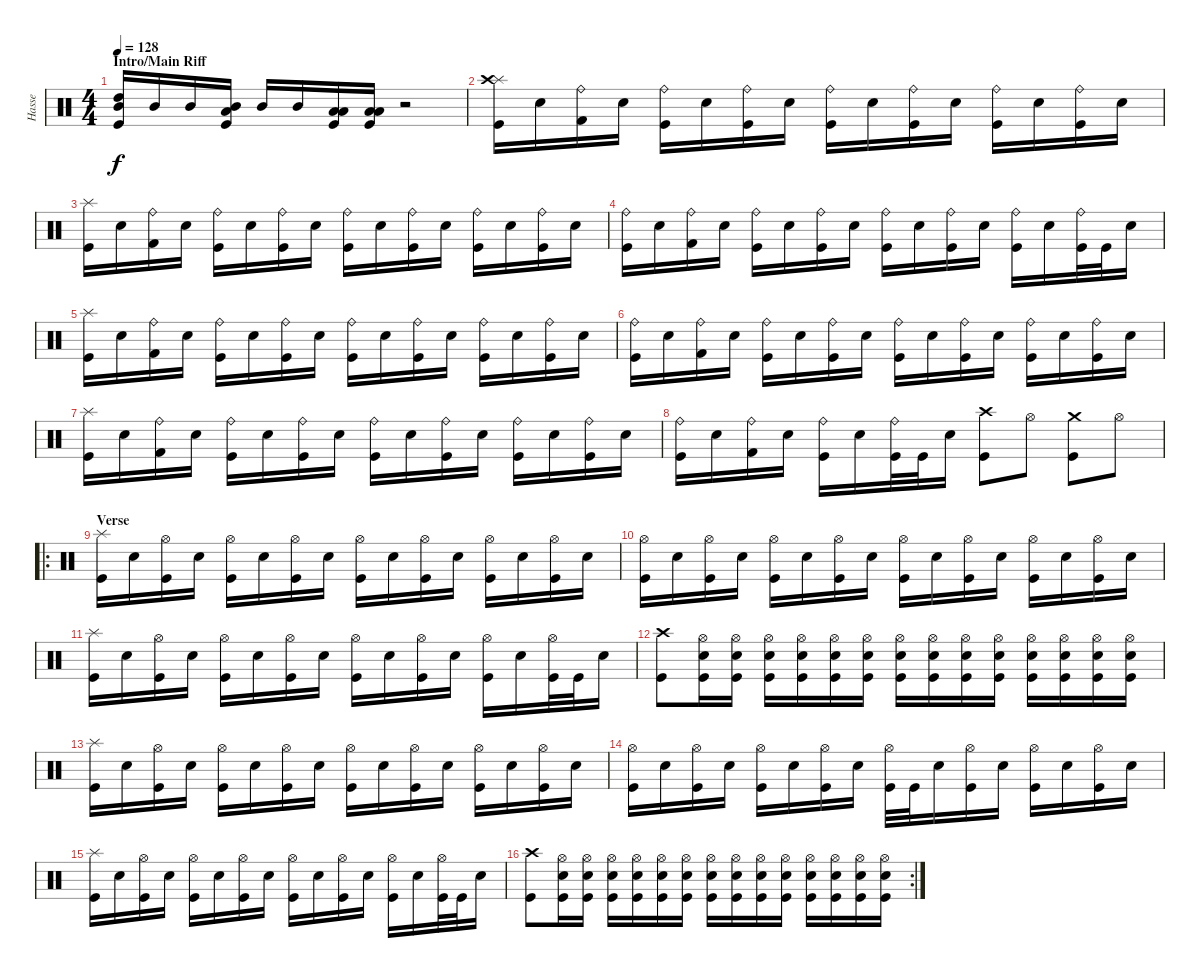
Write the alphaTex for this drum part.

\track ("Hasse" "Hasse") {instrument percussion}
\staff {score}
\articulation defaults
\ts (4 4)
\section ("" "Intro/Main Riff")
\tempo 128
\clef neutral
\ks c
("Mid Tom (hit)" "High Tom (hit)" "Kick (hit)").16{dy f} "Mid Tom (hit)".16 "Mid Tom (hit)".16 ("Mid Tom (hit)" "Low Tom (hit)" "Kick (hit)").16 "Mid Tom (hit)".16 "Mid Tom (hit)".16 ("Low Floor Tom (hit)" "Low Tom (hit)" "Kick (hit)").16 ("Low Floor Tom (hit)" "Low Tom (hit)" "Kick (hit)").16 r.2 |
("Splash (hit)" "Crash high (hit)" "Kick (hit)").16 "Snare (hit) 2".16 ("Ride (bell)" "Kick (hit) 2").16 "Snare (hit) 2".16 ("Ride (bell)" "Kick (hit)").16 "Snare (hit) 2".16 ("Ride (bell)" "Kick (hit)").16 "Snare (hit) 2".16 ("Ride (bell)" "Kick (hit)").16 "Snare (hit) 2".16 ("Ride (bell)" "Kick (hit)").16 "Snare (hit) 2".16 ("Ride (bell)" "Kick (hit)").16 "Snare (hit) 2".16 ("Ride (bell)" "Kick (hit)").16 "Snare (hit) 2".16 |
("Splash (hit)" "Kick (hit)").16 "Snare (hit) 2".16 ("Ride (bell)" "Kick (hit) 2").16 "Snare (hit) 2".16 ("Ride (bell)" "Kick (hit)").16 "Snare (hit) 2".16 ("Ride (bell)" "Kick (hit)").16 "Snare (hit) 2".16 ("Ride (bell)" "Kick (hit)").16 "Snare (hit) 2".16 ("Ride (bell)" "Kick (hit)").16 "Snare (hit) 2".16 ("Ride (bell)" "Kick (hit)").16 "Snare (hit) 2".16 ("Ride (bell)" "Kick (hit)").16 "Snare (hit) 2".16 |
("Ride (bell)" "Kick (hit)").16 "Snare (hit) 2".16 ("Ride (bell)" "Kick (hit) 2").16 "Snare (hit) 2".16 ("Ride (bell)" "Kick (hit)").16 "Snare (hit) 2".16 ("Ride (bell)" "Kick (hit)").16 "Snare (hit) 2".16 ("Ride (bell)" "Kick (hit)").16 "Snare (hit) 2".16 ("Ride (bell)" "Kick (hit)").16 "Snare (hit) 2".16 ("Ride (bell)" "Kick (hit)").16 "Snare (hit) 2".16 ("Ride (bell)" "Kick (hit)").32 "Kick (hit)".32 "Snare (hit) 2".16 |
("Splash (hit)" "Kick (hit)").16 "Snare (hit) 2".16 ("Ride (bell)" "Kick (hit) 2").16 "Snare (hit) 2".16 ("Ride (bell)" "Kick (hit)").16 "Snare (hit) 2".16 ("Ride (bell)" "Kick (hit)").16 "Snare (hit) 2".16 ("Ride (bell)" "Kick (hit)").16 "Snare (hit) 2".16 ("Ride (bell)" "Kick (hit)").16 "Snare (hit) 2".16 ("Ride (bell)" "Kick (hit)").16 "Snare (hit) 2".16 ("Ride (bell)" "Kick (hit)").16 "Snare (hit) 2".16 |
("Ride (bell)" "Kick (hit)").16 "Snare (hit) 2".16 ("Ride (bell)" "Kick (hit) 2").16 "Snare (hit) 2".16 ("Ride (bell)" "Kick (hit)").16 "Snare (hit) 2".16 ("Ride (bell)" "Kick (hit)").16 "Snare (hit) 2".16 ("Ride (bell)" "Kick (hit)").16 "Snare (hit) 2".16 ("Ride (bell)" "Kick (hit)").16 "Snare (hit) 2".16 ("Ride (bell)" "Kick (hit)").16 "Snare (hit) 2".16 ("Ride (bell)" "Kick (hit)").16 "Snare (hit) 2".16 |
("Splash (hit)" "Kick (hit)").16 "Snare (hit) 2".16 ("Ride (bell)" "Kick (hit) 2").16 "Snare (hit) 2".16 ("Ride (bell)" "Kick (hit)").16 "Snare (hit) 2".16 ("Ride (bell)" "Kick (hit)").16 "Snare (hit) 2".16 ("Ride (bell)" "Kick (hit)").16 "Snare (hit) 2".16 ("Ride (bell)" "Kick (hit)").16 "Snare (hit) 2".16 ("Ride (bell)" "Kick (hit)").16 "Snare (hit) 2".16 ("Ride (bell)" "Kick (hit)").16 "Snare (hit) 2".16 |
("Ride (bell)" "Kick (hit)").16 "Snare (hit) 2".16 ("Ride (bell)" "Kick (hit) 2").16 "Snare (hit) 2".16 ("Ride (bell)" "Kick (hit)").16 "Snare (hit) 2".16 ("Ride (bell)" "Kick (hit)").32 "Kick (hit)".32 "Snare (hit) 2".16 ("Crash high (hit)" "Kick (hit)").8 "Hi-Hat (open)".8 ("Crash medium (hit)" "Kick (hit)").8 "Hi-Hat (open)".8 |
\ro
\section ("" "Verse")
("Splash (hit)" "Kick (hit)").16 "Snare (hit) 2".16 ("Hi-Hat (open)" "Kick (hit)").16 "Snare (hit) 2".16 ("Hi-Hat (open)" "Kick (hit)").16 "Snare (hit) 2".16 ("Hi-Hat (open)" "Kick (hit)").16 "Snare (hit) 2".16 ("Hi-Hat (open)" "Kick (hit)").16 "Snare (hit) 2".16 ("Hi-Hat (open)" "Kick (hit)").16 "Snare (hit) 2".16 ("Hi-Hat (open)" "Kick (hit)").16 "Snare (hit) 2".16 ("Hi-Hat (open)" "Kick (hit)").16 "Snare (hit) 2".16 |
("Hi-Hat (open)" "Kick (hit)").16 "Snare (hit) 2".16 ("Hi-Hat (open)" "Kick (hit)").16 "Snare (hit) 2".16 ("Hi-Hat (open)" "Kick (hit)").16 "Snare (hit) 2".16 ("Hi-Hat (open)" "Kick (hit)").16 "Snare (hit) 2".16 ("Hi-Hat (open)" "Kick (hit)").16 "Snare (hit) 2".16 ("Hi-Hat (open)" "Kick (hit)").16 "Snare (hit) 2".16 ("Hi-Hat (open)" "Kick (hit)").16 "Snare (hit) 2".16 ("Hi-Hat (open)" "Kick (hit)").16 "Snare (hit) 2".16 |
("Splash (hit)" "Kick (hit)").16 "Snare (hit) 2".16 ("Hi-Hat (open)" "Kick (hit)").16 "Snare (hit) 2".16 ("Hi-Hat (open)" "Kick (hit)").16 "Snare (hit) 2".16 ("Hi-Hat (open)" "Kick (hit)").16 "Snare (hit) 2".16 ("Hi-Hat (open)" "Kick (hit)").16 "Snare (hit) 2".16 ("Hi-Hat (open)" "Kick (hit)").16 "Snare (hit) 2".16 ("Hi-Hat (open)" "Kick (hit)").16 "Snare (hit) 2".16 ("Hi-Hat (open)" "Kick (hit)").32 "Kick (hit)".32 "Snare (hit) 2".16 |
("Crash high (hit)" "Kick (hit)").8 ("Hi-Hat (open)" "Snare (hit) 2" "Kick (hit)").16 ("Hi-Hat (open)" "Snare (hit) 2" "Kick (hit)").16 ("Hi-Hat (open)" "Snare (hit) 2" "Kick (hit)").16 ("Hi-Hat (open)" "Snare (hit) 2" "Kick (hit)").16 ("Hi-Hat (open)" "Snare (hit) 2" "Kick (hit)").16 ("Hi-Hat (open)" "Snare (hit) 2" "Kick (hit)").16 ("Hi-Hat (open)" "Snare (hit) 2" "Kick (hit)").16 ("Hi-Hat (open)" "Snare (hit) 2" "Kick (hit)").16 ("Hi-Hat (open)" "Snare (hit) 2" "Kick (hit)").16 ("Hi-Hat (open)" "Snare (hit) 2" "Kick (hit)").16 ("Hi-Hat (open)" "Snare (hit) 2" "Kick (hit)").16 ("Hi-Hat (open)" "Snare (hit) 2" "Kick (hit)").16 ("Hi-Hat (open)" "Snare (hit) 2" "Kick (hit)").16 ("Hi-Hat (open)" "Snare (hit) 2" "Kick (hit)").16 |
("Splash (hit)" "Kick (hit)").16 "Snare (hit) 2".16 ("Hi-Hat (open)" "Kick (hit)").16 "Snare (hit) 2".16 ("Hi-Hat (open)" "Kick (hit)").16 "Snare (hit) 2".16 ("Hi-Hat (open)" "Kick (hit)").16 "Snare (hit) 2".16 ("Hi-Hat (open)" "Kick (hit)").16 "Snare (hit) 2".16 ("Hi-Hat (open)" "Kick (hit)").16 "Snare (hit) 2".16 ("Hi-Hat (open)" "Kick (hit)").16 "Snare (hit) 2".16 ("Hi-Hat (open)" "Kick (hit)").16 "Snare (hit) 2".16 |
("Hi-Hat (open)" "Kick (hit)").16 "Snare (hit) 2".16 ("Hi-Hat (open)" "Kick (hit)").16 "Snare (hit) 2".16 ("Hi-Hat (open)" "Kick (hit)").16 "Snare (hit) 2".16 ("Hi-Hat (open)" "Kick (hit)").16 "Snare (hit) 2".16 ("Hi-Hat (open)" "Kick (hit)").32 "Kick (hit)".32 "Snare (hit) 2".16 ("Hi-Hat (open)" "Kick (hit)").16 "Snare (hit) 2".16 ("Hi-Hat (open)" "Kick (hit)").16 "Snare (hit) 2".16 ("Hi-Hat (open)" "Kick (hit)").16 "Snare (hit) 2".16 |
("Splash (hit)" "Kick (hit)").16 "Snare (hit) 2".16 ("Hi-Hat (open)" "Kick (hit)").16 "Snare (hit) 2".16 ("Hi-Hat (open)" "Kick (hit)").16 "Snare (hit) 2".16 ("Hi-Hat (open)" "Kick (hit)").16 "Snare (hit) 2".16 ("Hi-Hat (open)" "Kick (hit)").16 "Snare (hit) 2".16 ("Hi-Hat (open)" "Kick (hit)").16 "Snare (hit) 2".16 ("Hi-Hat (open)" "Kick (hit)").16 "Snare (hit) 2".16 ("Hi-Hat (open)" "Kick (hit)").32 "Kick (hit)".32 "Snare (hit) 2".16 |
\rc 2
("Crash high (hit)" "Kick (hit)").8 ("Hi-Hat (open)" "Snare (hit) 2" "Kick (hit)").16 ("Hi-Hat (open)" "Snare (hit) 2" "Kick (hit)").16 ("Hi-Hat (open)" "Snare (hit) 2" "Kick (hit)").16 ("Hi-Hat (open)" "Snare (hit) 2" "Kick (hit)").16 ("Hi-Hat (open)" "Snare (hit) 2" "Kick (hit)").16 ("Hi-Hat (open)" "Snare (hit) 2" "Kick (hit)").16 ("Hi-Hat (open)" "Snare (hit) 2" "Kick (hit)").16 ("Hi-Hat (open)" "Snare (hit) 2" "Kick (hit)").16 ("Hi-Hat (open)" "Snare (hit) 2" "Kick (hit)").16 ("Hi-Hat (open)" "Snare (hit) 2" "Kick (hit)").16 ("Hi-Hat (open)" "Snare (hit) 2" "Kick (hit)").16 ("Hi-Hat (open)" "Snare (hit) 2" "Kick (hit)").16 ("Hi-Hat (open)" "Snare (hit) 2" "Kick (hit)").16 ("Hi-Hat (open)" "Snare (hit) 2" "Kick (hit)").16
